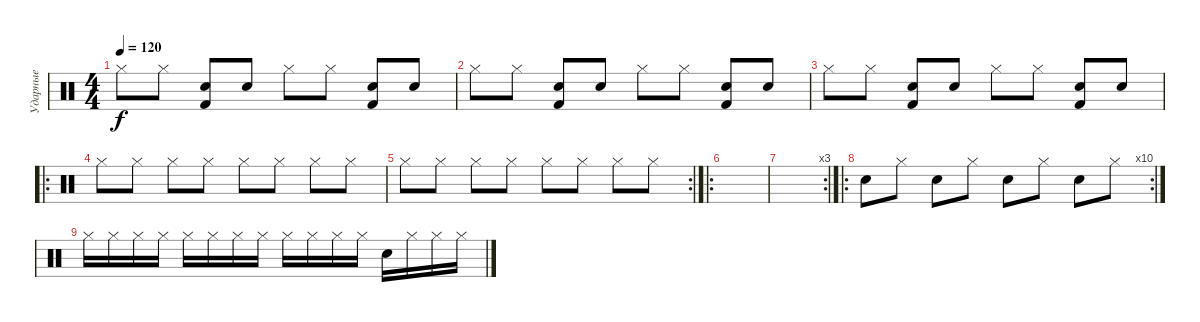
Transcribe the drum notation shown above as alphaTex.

\track ("Ударные" "Ударные") {instrument percussion}
\staff {score}
\articulation defaults
\ts (4 4)
\tempo 120
\clef neutral
\ks c "Hi-Hat (closed)".8{dy f} "Hi-Hat (closed)".8
("Snare (hit) 2" "Kick (hit) 2").8 "Snare (hit) 2".8 "Hi-Hat (closed)".8 "Hi-Hat (closed)".8 ("Snare (hit) 2" "Kick (hit) 2").8 "Snare (hit) 2".8 |
"Hi-Hat (closed)".8 "Hi-Hat (closed)".8 ("Snare (hit) 2" "Kick (hit) 2").8 "Snare (hit) 2".8 "Hi-Hat (closed)".8 "Hi-Hat (closed)".8 ("Snare (hit) 2" "Kick (hit) 2").8 "Snare (hit) 2".8 |
"Hi-Hat (closed)".8 "Hi-Hat (closed)".8 ("Snare (hit) 2" "Kick (hit) 2").8 "Snare (hit) 2".8 "Hi-Hat (closed)".8 "Hi-Hat (closed)".8 ("Snare (hit) 2" "Kick (hit) 2").8 "Snare (hit) 2".8 |
\ro "Hi-Hat (closed)".8 "Hi-Hat (closed)".8 "Hi-Hat (closed)".8 "Hi-Hat (closed)".8 "Hi-Hat (closed)".8 "Hi-Hat (closed)".8 "Hi-Hat (closed)".8 "Hi-Hat (closed)".8
|
\rc 2 "Hi-Hat (closed)".8 "Hi-Hat (closed)".8 "Hi-Hat (closed)".8 "Hi-Hat (closed)".8 "Hi-Hat (closed)".8 "Hi-Hat (closed)".8 "Hi-Hat (closed)".8 "Hi-Hat (closed)".8
|
\ro
|
\rc 3
|
\ro
\rc 10 "Snare (hit) 2".8 "Hi-Hat (closed)".8 "Snare (hit) 2".8 "Hi-Hat (closed)".8 "Snare (hit) 2".8 "Hi-Hat (closed)".8 "Snare (hit) 2".8 "Hi-Hat (closed)".8
|
"Hi-Hat (closed)".16 "Hi-Hat (closed)".16 "Hi-Hat (closed)".16 "Hi-Hat (closed)".16 "Hi-Hat (closed)".16 "Hi-Hat (closed)".16 "Hi-Hat (closed)".16 "Hi-Hat (closed)".16 "Hi-Hat (closed)".16 "Hi-Hat (closed)".16 "Hi-Hat (closed)".16 "Hi-Hat (closed)".16 "Snare (hit) 2".16 "Hi-Hat (closed)".16 "Hi-Hat (closed)".16 "Hi-Hat (closed)".16
